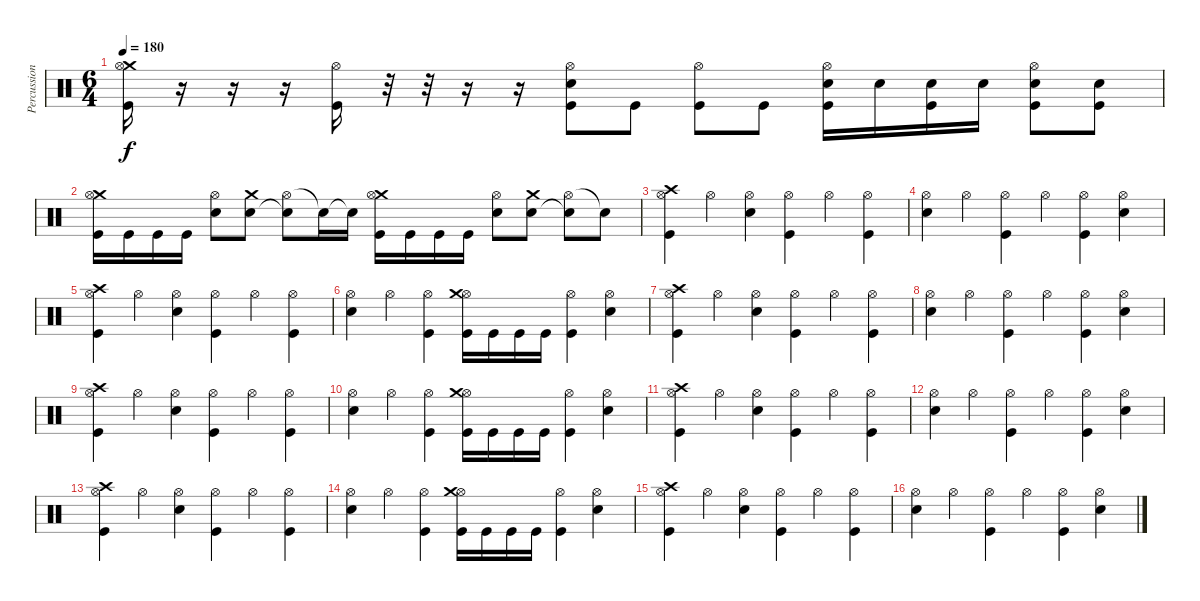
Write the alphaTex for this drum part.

\track ("Percussion" "Percussion") {instrument percussion}
\staff {score}
\articulation defaults
\ts (6 4)
\tempo 180
\clef neutral
\ks c
("Crash medium (hit)" "Hi-Hat (open)" "Kick (hit)").16{dy f} r.16 r.16 r.16 ("Hi-Hat (open)" "Kick (hit)").16 r.32 r.32 r.16 r.16 ("Electric Snare (hit)" "Hi-Hat (open)" "Kick (hit)").8 "Kick (hit)".8 ("Hi-Hat (open)" "Kick (hit)").8 "Kick (hit)".8 ("Electric Snare (hit)" "Hi-Hat (open)" "Kick (hit)").16 "Electric Snare (hit)".16 ("Electric Snare (hit)" "Kick (hit)").16 "Electric Snare (hit)".16 ("Electric Snare (hit)" "Hi-Hat (open)" "Kick (hit)").8 ("Electric Snare (hit)" "Kick (hit)").8 |
("Crash medium (hit)" "Hi-Hat (open)" "Kick (hit)").16 "Kick (hit)".16 "Kick (hit)".16 "Kick (hit)".16 ("Hi-Hat (open)" "Electric Snare (hit)").8 ("Crash medium (hit)" "Electric Snare (hit)").8 ("Hi-Hat (open)" "Snare (hit)"{t}).8 "Snare (hit)"{t}.16 "Snare (hit)"{t}.16 ("Crash medium (hit)" "Hi-Hat (open)" "Kick (hit)").16 "Kick (hit)".16 "Kick (hit)".16 "Kick (hit)".16 ("Hi-Hat (open)" "Electric Snare (hit)").8 ("Crash medium (hit)" "Electric Snare (hit)").8 ("Hi-Hat (open)" "Snare (hit)"{t}).8 "Snare (hit)"{t}.8 |
("Crash high (hit)" "Hi-Hat (open)" "Kick (hit)").4 "Hi-Hat (open)".4 ("Hi-Hat (open)" "Electric Snare (hit)").4 ("Hi-Hat (open)" "Kick (hit)").4 "Hi-Hat (open)".4 ("Hi-Hat (open)" "Kick (hit)").4 |
("Hi-Hat (open)" "Electric Snare (hit)").4 "Hi-Hat (open)".4 ("Hi-Hat (open)" "Kick (hit)").4 "Hi-Hat (open)".4 ("Hi-Hat (open)" "Kick (hit)").4 ("Hi-Hat (open)" "Electric Snare (hit)").4 |
("Crash high (hit)" "Hi-Hat (open)" "Kick (hit)").4 "Hi-Hat (open)".4 ("Hi-Hat (open)" "Electric Snare (hit)").4 ("Hi-Hat (open)" "Kick (hit)").4 "Hi-Hat (open)".4 ("Hi-Hat (open)" "Kick (hit)").4 |
("Hi-Hat (open)" "Electric Snare (hit)").4 "Hi-Hat (open)".4 ("Hi-Hat (open)" "Kick (hit)").4 ("Hi-Hat (open)" "Crash medium (hit)" "Kick (hit)").16 "Kick (hit)".16 "Kick (hit)".16 "Kick (hit)".16 ("Hi-Hat (open)" "Kick (hit)").4 ("Hi-Hat (open)" "Electric Snare (hit)").4 |
("Crash high (hit)" "Hi-Hat (open)" "Kick (hit)").4 "Hi-Hat (open)".4 ("Hi-Hat (open)" "Electric Snare (hit)").4 ("Hi-Hat (open)" "Kick (hit)").4 "Hi-Hat (open)".4 ("Hi-Hat (open)" "Kick (hit)").4 |
("Hi-Hat (open)" "Electric Snare (hit)").4 "Hi-Hat (open)".4 ("Hi-Hat (open)" "Kick (hit)").4 "Hi-Hat (open)".4 ("Hi-Hat (open)" "Kick (hit)").4 ("Hi-Hat (open)" "Electric Snare (hit)").4 |
("Crash high (hit)" "Hi-Hat (open)" "Kick (hit)").4 "Hi-Hat (open)".4 ("Hi-Hat (open)" "Electric Snare (hit)").4 ("Hi-Hat (open)" "Kick (hit)").4 "Hi-Hat (open)".4 ("Hi-Hat (open)" "Kick (hit)").4 |
("Hi-Hat (open)" "Electric Snare (hit)").4 "Hi-Hat (open)".4 ("Hi-Hat (open)" "Kick (hit)").4 ("Hi-Hat (open)" "Crash medium (hit)" "Kick (hit)").16 "Kick (hit)".16 "Kick (hit)".16 "Kick (hit)".16 ("Hi-Hat (open)" "Kick (hit)").4 ("Hi-Hat (open)" "Electric Snare (hit)").4 |
("Crash high (hit)" "Hi-Hat (open)" "Kick (hit)").4 "Hi-Hat (open)".4 ("Hi-Hat (open)" "Electric Snare (hit)").4 ("Hi-Hat (open)" "Kick (hit)").4 "Hi-Hat (open)".4 ("Hi-Hat (open)" "Kick (hit)").4 |
("Hi-Hat (open)" "Electric Snare (hit)").4 "Hi-Hat (open)".4 ("Hi-Hat (open)" "Kick (hit)").4 "Hi-Hat (open)".4 ("Hi-Hat (open)" "Kick (hit)").4 ("Hi-Hat (open)" "Electric Snare (hit)").4 |
("Crash high (hit)" "Hi-Hat (open)" "Kick (hit)").4 "Hi-Hat (open)".4 ("Hi-Hat (open)" "Electric Snare (hit)").4 ("Hi-Hat (open)" "Kick (hit)").4 "Hi-Hat (open)".4 ("Hi-Hat (open)" "Kick (hit)").4 |
("Hi-Hat (open)" "Electric Snare (hit)").4 "Hi-Hat (open)".4 ("Hi-Hat (open)" "Kick (hit)").4 ("Hi-Hat (open)" "Crash medium (hit)" "Kick (hit)").16 "Kick (hit)".16 "Kick (hit)".16 "Kick (hit)".16 ("Hi-Hat (open)" "Kick (hit)").4 ("Hi-Hat (open)" "Electric Snare (hit)").4 |
("Crash high (hit)" "Hi-Hat (open)" "Kick (hit)").4 "Hi-Hat (open)".4 ("Hi-Hat (open)" "Electric Snare (hit)").4 ("Hi-Hat (open)" "Kick (hit)").4 "Hi-Hat (open)".4 ("Hi-Hat (open)" "Kick (hit)").4 |
("Hi-Hat (open)" "Electric Snare (hit)").4 "Hi-Hat (open)".4 ("Hi-Hat (open)" "Kick (hit)").4 "Hi-Hat (open)".4 ("Hi-Hat (open)" "Kick (hit)").4 ("Hi-Hat (open)" "Electric Snare (hit)").4
